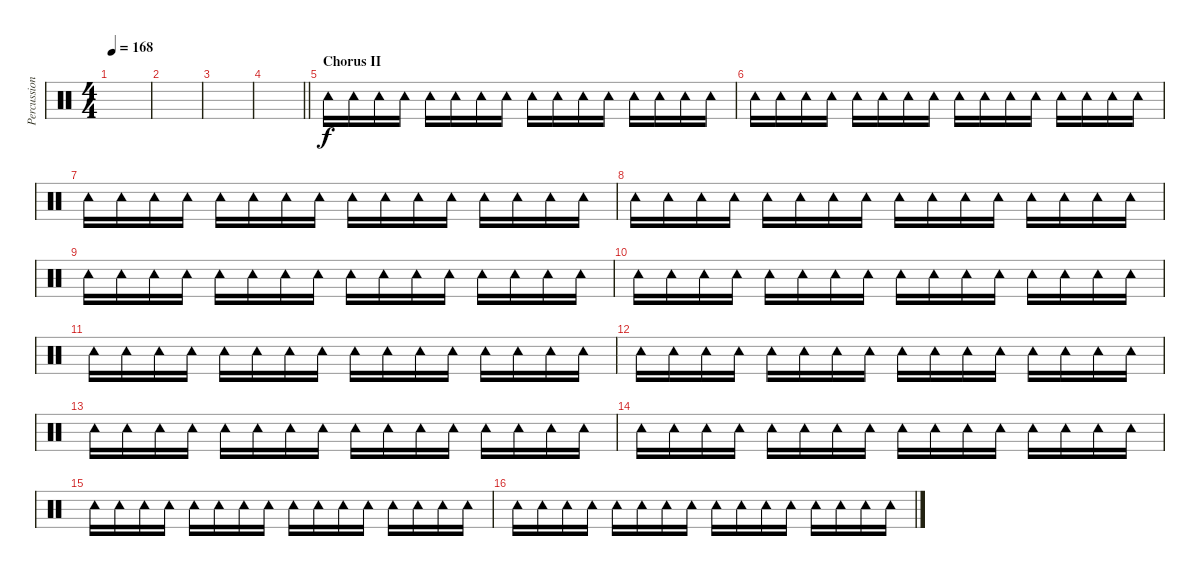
\track ("Percussion" "Percussion") {instrument percussion}
\staff {score}
\articulation defaults
\ts (4 4)
\tempo 168
\clef neutral
\ks c
|
|
|
\barLineRight lightlight
|
\section ("" "Chorus II")
"Tambourine (hit)".16 "Tambourine (hit)".16 "Tambourine (hit)".16 "Tambourine (hit)".16 "Tambourine (hit)".16 "Tambourine (hit)".16 "Tambourine (hit)".16 "Tambourine (hit)".16 "Tambourine (hit)".16 "Tambourine (hit)".16 "Tambourine (hit)".16 "Tambourine (hit)".16 "Tambourine (hit)".16 "Tambourine (hit)".16 "Tambourine (hit)".16 "Tambourine (hit)".16 |
"Tambourine (hit)".16 "Tambourine (hit)".16 "Tambourine (hit)".16 "Tambourine (hit)".16 "Tambourine (hit)".16 "Tambourine (hit)".16 "Tambourine (hit)".16 "Tambourine (hit)".16 "Tambourine (hit)".16 "Tambourine (hit)".16 "Tambourine (hit)".16 "Tambourine (hit)".16 "Tambourine (hit)".16 "Tambourine (hit)".16 "Tambourine (hit)".16 "Tambourine (hit)".16 |
"Tambourine (hit)".16 "Tambourine (hit)".16 "Tambourine (hit)".16 "Tambourine (hit)".16 "Tambourine (hit)".16 "Tambourine (hit)".16 "Tambourine (hit)".16 "Tambourine (hit)".16 "Tambourine (hit)".16 "Tambourine (hit)".16 "Tambourine (hit)".16 "Tambourine (hit)".16 "Tambourine (hit)".16 "Tambourine (hit)".16 "Tambourine (hit)".16 "Tambourine (hit)".16 |
"Tambourine (hit)".16 "Tambourine (hit)".16 "Tambourine (hit)".16 "Tambourine (hit)".16 "Tambourine (hit)".16 "Tambourine (hit)".16 "Tambourine (hit)".16 "Tambourine (hit)".16 "Tambourine (hit)".16 "Tambourine (hit)".16 "Tambourine (hit)".16 "Tambourine (hit)".16 "Tambourine (hit)".16 "Tambourine (hit)".16 "Tambourine (hit)".16 "Tambourine (hit)".16 |
"Tambourine (hit)".16 "Tambourine (hit)".16 "Tambourine (hit)".16 "Tambourine (hit)".16 "Tambourine (hit)".16 "Tambourine (hit)".16 "Tambourine (hit)".16 "Tambourine (hit)".16 "Tambourine (hit)".16 "Tambourine (hit)".16 "Tambourine (hit)".16 "Tambourine (hit)".16 "Tambourine (hit)".16 "Tambourine (hit)".16 "Tambourine (hit)".16 "Tambourine (hit)".16 |
"Tambourine (hit)".16 "Tambourine (hit)".16 "Tambourine (hit)".16 "Tambourine (hit)".16 "Tambourine (hit)".16 "Tambourine (hit)".16 "Tambourine (hit)".16 "Tambourine (hit)".16 "Tambourine (hit)".16 "Tambourine (hit)".16 "Tambourine (hit)".16 "Tambourine (hit)".16 "Tambourine (hit)".16 "Tambourine (hit)".16 "Tambourine (hit)".16 "Tambourine (hit)".16 |
"Tambourine (hit)".16 "Tambourine (hit)".16 "Tambourine (hit)".16 "Tambourine (hit)".16 "Tambourine (hit)".16 "Tambourine (hit)".16 "Tambourine (hit)".16 "Tambourine (hit)".16 "Tambourine (hit)".16 "Tambourine (hit)".16 "Tambourine (hit)".16 "Tambourine (hit)".16 "Tambourine (hit)".16 "Tambourine (hit)".16 "Tambourine (hit)".16 "Tambourine (hit)".16 |
"Tambourine (hit)".16 "Tambourine (hit)".16 "Tambourine (hit)".16 "Tambourine (hit)".16 "Tambourine (hit)".16 "Tambourine (hit)".16 "Tambourine (hit)".16 "Tambourine (hit)".16 "Tambourine (hit)".16 "Tambourine (hit)".16 "Tambourine (hit)".16 "Tambourine (hit)".16 "Tambourine (hit)".16 "Tambourine (hit)".16 "Tambourine (hit)".16 "Tambourine (hit)".16 |
"Tambourine (hit)".16 "Tambourine (hit)".16 "Tambourine (hit)".16 "Tambourine (hit)".16 "Tambourine (hit)".16 "Tambourine (hit)".16 "Tambourine (hit)".16 "Tambourine (hit)".16 "Tambourine (hit)".16 "Tambourine (hit)".16 "Tambourine (hit)".16 "Tambourine (hit)".16 "Tambourine (hit)".16 "Tambourine (hit)".16 "Tambourine (hit)".16 "Tambourine (hit)".16 |
"Tambourine (hit)".16 "Tambourine (hit)".16 "Tambourine (hit)".16 "Tambourine (hit)".16 "Tambourine (hit)".16 "Tambourine (hit)".16 "Tambourine (hit)".16 "Tambourine (hit)".16 "Tambourine (hit)".16 "Tambourine (hit)".16 "Tambourine (hit)".16 "Tambourine (hit)".16 "Tambourine (hit)".16 "Tambourine (hit)".16 "Tambourine (hit)".16 "Tambourine (hit)".16 |
"Tambourine (hit)".16 "Tambourine (hit)".16 "Tambourine (hit)".16 "Tambourine (hit)".16 "Tambourine (hit)".16 "Tambourine (hit)".16 "Tambourine (hit)".16 "Tambourine (hit)".16 "Tambourine (hit)".16 "Tambourine (hit)".16 "Tambourine (hit)".16 "Tambourine (hit)".16 "Tambourine (hit)".16 "Tambourine (hit)".16 "Tambourine (hit)".16 "Tambourine (hit)".16 |
"Tambourine (hit)".16 "Tambourine (hit)".16 "Tambourine (hit)".16 "Tambourine (hit)".16 "Tambourine (hit)".16 "Tambourine (hit)".16 "Tambourine (hit)".16 "Tambourine (hit)".16 "Tambourine (hit)".16 "Tambourine (hit)".16 "Tambourine (hit)".16 "Tambourine (hit)".16 "Tambourine (hit)".16 "Tambourine (hit)".16 "Tambourine (hit)".16 "Tambourine (hit)".16
